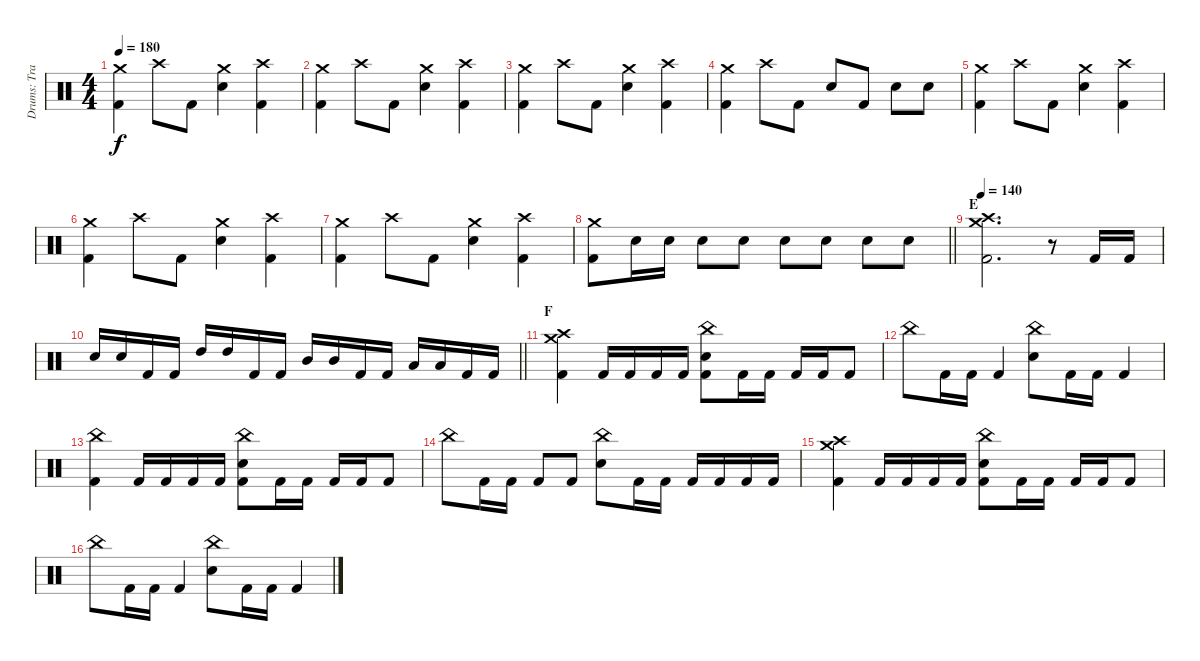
\track ("Drums: Travis Clarke" "Drums: Tra") {instrument percussion}
\staff {score}
\articulation defaults
\ts (4 4)
\tempo 180
\clef neutral
\ks c
("Kick (hit) 2" "Crash medium (hit)").4{dy f} "Crash high (hit)".8 "Kick (hit) 2".8 ("Snare (hit) 2" "Crash medium (hit)").4 ("Kick (hit) 2" "Crash high (hit)").4 |
("Kick (hit) 2" "Crash medium (hit)").4 "Crash high (hit)".8 "Kick (hit) 2".8 ("Snare (hit) 2" "Crash medium (hit)").4 ("Kick (hit) 2" "Crash high (hit)").4 |
("Kick (hit) 2" "Crash medium (hit)").4 "Crash high (hit)".8 "Kick (hit) 2".8 ("Snare (hit) 2" "Crash medium (hit)").4 ("Kick (hit) 2" "Crash high (hit)").4 |
("Kick (hit) 2" "Crash medium (hit)").4 "Crash high (hit)".8 "Kick (hit) 2".8 "Snare (hit) 2".8 "Kick (hit) 2".8 "Snare (hit) 2".8 "Snare (hit) 2".8 |
("Kick (hit) 2" "Crash medium (hit)").4 "Crash high (hit)".8 "Kick (hit) 2".8 ("Snare (hit) 2" "Crash medium (hit)").4 ("Kick (hit) 2" "Crash high (hit)").4 |
("Kick (hit) 2" "Crash medium (hit)").4 "Crash high (hit)".8 "Kick (hit) 2".8 ("Snare (hit) 2" "Crash medium (hit)").4 ("Kick (hit) 2" "Crash high (hit)").4 |
("Kick (hit) 2" "Crash medium (hit)").4 "Crash high (hit)".8 "Kick (hit) 2".8 ("Snare (hit) 2" "Crash medium (hit)").4 ("Kick (hit) 2" "Crash high (hit)").4 |
\barLineRight lightlight
("Kick (hit) 2" "Crash medium (hit)").8 "Snare (hit) 2".16 "Snare (hit) 2".16 "Snare (hit) 2".8 "Snare (hit) 2".8 "Snare (hit) 2".8 "Snare (hit) 2".8 "Snare (hit) 2".8 "Snare (hit) 2".8 |
\section ("" "E")
\tempo 140
("Kick (hit) 2" "Crash high (hit)" "Crash medium (hit)").2{d} r.8 "Kick (hit) 2".16 "Kick (hit) 2".16 |
\barLineRight lightlight "Snare (hit) 2".16 "Snare (hit) 2".16 "Kick (hit) 2".16 "Kick (hit) 2".16 "High Tom (hit)".16 "High Tom (hit)".16 "Kick (hit) 2".16 "Kick (hit) 2".16 "Mid Tom (hit)".16 "Mid Tom (hit)".16 "Kick (hit) 2".16 "Kick (hit) 2".16 "Low Tom (hit)".16 "Low Tom (hit)".16 "Kick (hit) 2".16 "Kick (hit) 2".16
|
\section ("" "F")
("Kick (hit) 2" "Crash high (hit)" "Crash medium (hit)").4 "Kick (hit) 2".16 "Kick (hit) 2".16 "Kick (hit) 2".16 "Kick (hit) 2".16 ("Kick (hit) 2" "Snare (hit) 2" "China (hit)").8 "Kick (hit) 2".16 "Kick (hit) 2".16 "Kick (hit) 2".16 "Kick (hit) 2".16 "Kick (hit) 2".8 |
"China (hit)".8 "Kick (hit) 2".16 "Kick (hit) 2".16 "Kick (hit) 2".4 ("Snare (hit) 2" "China (hit)").8 "Kick (hit) 2".16 "Kick (hit) 2".16 "Kick (hit) 2".4 |
("Kick (hit) 2" "China (hit)").4 "Kick (hit) 2".16 "Kick (hit) 2".16 "Kick (hit) 2".16 "Kick (hit) 2".16 ("Kick (hit) 2" "Snare (hit) 2" "China (hit)").8 "Kick (hit) 2".16 "Kick (hit) 2".16 "Kick (hit) 2".16 "Kick (hit) 2".16 "Kick (hit) 2".8 |
"China (hit)".8 "Kick (hit) 2".16 "Kick (hit) 2".16 "Kick (hit) 2".8 "Kick (hit) 2".8 ("Snare (hit) 2" "China (hit)").8 "Kick (hit) 2".16 "Kick (hit) 2".16 "Kick (hit) 2".16 "Kick (hit) 2".16 "Kick (hit) 2".16 "Kick (hit) 2".16 |
("Kick (hit) 2" "Crash high (hit)" "Crash medium (hit)").4 "Kick (hit) 2".16 "Kick (hit) 2".16 "Kick (hit) 2".16 "Kick (hit) 2".16 ("Kick (hit) 2" "Snare (hit) 2" "China (hit)").8 "Kick (hit) 2".16 "Kick (hit) 2".16 "Kick (hit) 2".16 "Kick (hit) 2".16 "Kick (hit) 2".8 |
"China (hit)".8 "Kick (hit) 2".16 "Kick (hit) 2".16 "Kick (hit) 2".4 ("Snare (hit) 2" "China (hit)").8 "Kick (hit) 2".16 "Kick (hit) 2".16 "Kick (hit) 2".4
